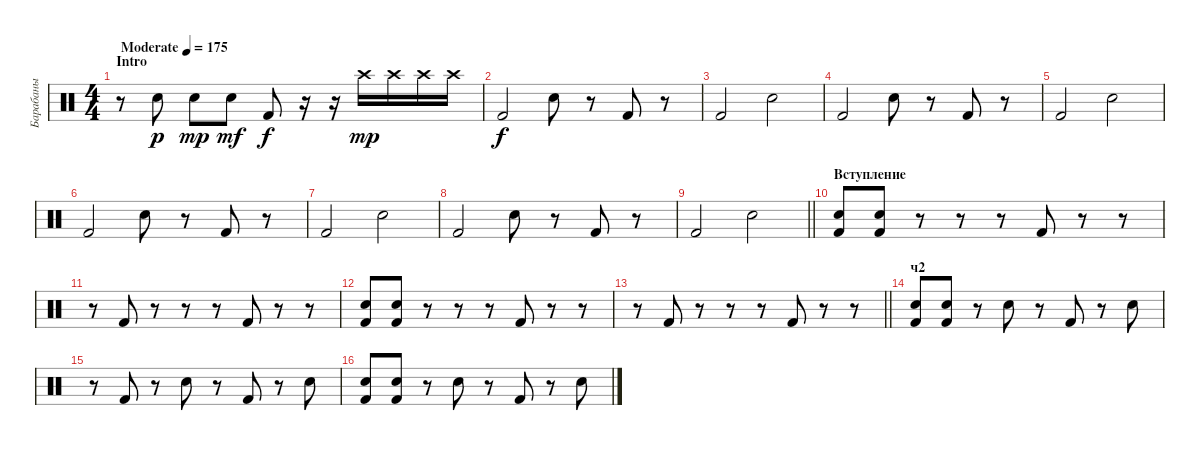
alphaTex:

\track ("Барабаны" "Барабаны") {instrument percussion}
\staff {score}
\articulation defaults
\ts (4 4)
\section ("" "Intro")
\tempo (175 "Moderate")
\clef neutral
\ks c
r.8{dy p} "Snare (hit) 2".8 "Snare (hit) 2".8{dy mp} "Snare (hit) 2".8{dy mf} "Kick (hit) 2".8{dy f} r.16 r.16 "Crash high (hit)".16{dy mp} "Crash high (hit)".16 "Crash high (hit)".16 "Crash high (hit)".16 |
"Kick (hit) 2".2{dy f} "Snare (hit) 2".8 r.8 "Kick (hit) 2".8 r.8 |
"Kick (hit) 2".2 "Snare (hit) 2".2 |
"Kick (hit) 2".2 "Snare (hit) 2".8 r.8 "Kick (hit) 2".8 r.8 |
"Kick (hit) 2".2 "Snare (hit) 2".2 |
"Kick (hit) 2".2 "Snare (hit) 2".8 r.8 "Kick (hit) 2".8 r.8 |
"Kick (hit) 2".2 "Snare (hit) 2".2 |
"Kick (hit) 2".2 "Snare (hit) 2".8 r.8 "Kick (hit) 2".8 r.8 |
\barLineRight lightlight "Kick (hit) 2".2 "Snare (hit) 2".2
|
\section ("" "Вступление")
("Kick (hit) 2" "Snare (hit) 2").8 ("Kick (hit) 2" "Snare (hit) 2").8 r.8 r.8 r.8 "Kick (hit) 2".8 r.8 r.8 |
r.8 "Kick (hit) 2".8 r.8 r.8 r.8 "Kick (hit) 2".8 r.8 r.8 |
("Kick (hit) 2" "Snare (hit) 2").8 ("Kick (hit) 2" "Snare (hit) 2").8 r.8 r.8 r.8 "Kick (hit) 2".8 r.8 r.8 |
\barLineRight lightlight
r.8 "Kick (hit) 2".8 r.8 r.8 r.8 "Kick (hit) 2".8 r.8 r.8 |
\section ("" "ч2")
("Kick (hit) 2" "Snare (hit) 2").8 ("Kick (hit) 2" "Snare (hit) 2").8 r.8 "Snare (hit) 2".8 r.8 "Kick (hit) 2".8 r.8 "Snare (hit) 2".8 |
r.8 "Kick (hit) 2".8 r.8 "Snare (hit) 2".8 r.8 "Kick (hit) 2".8 r.8 "Snare (hit) 2".8 |
("Kick (hit) 2" "Snare (hit) 2").8 ("Kick (hit) 2" "Snare (hit) 2").8 r.8 "Snare (hit) 2".8 r.8 "Kick (hit) 2".8 r.8 "Snare (hit) 2".8
